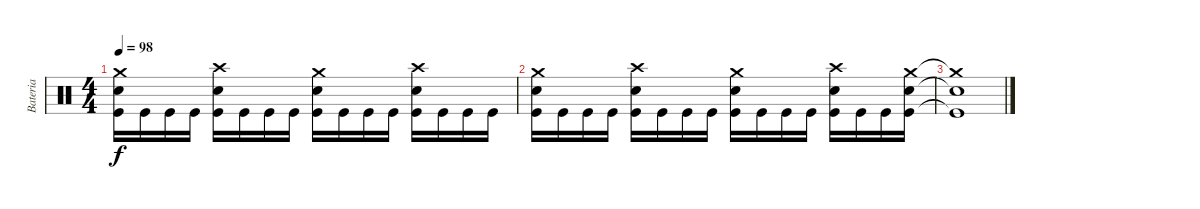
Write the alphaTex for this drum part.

\track ("Bateria" "Bateria") {instrument percussion}
\staff {score}
\articulation defaults
\ts (4 4)
\tempo 98
\clef neutral
\ks c
("Crash medium (hit)" "Electric Snare (hit)" "Kick (hit)").16{dy f} "Kick (hit)".16 "Kick (hit)".16 "Kick (hit)".16 ("Crash high (hit)" "Electric Snare (hit)" "Kick (hit)").16 "Kick (hit)".16 "Kick (hit)".16 "Kick (hit)".16 ("Crash medium (hit)" "Electric Snare (hit)" "Kick (hit)").16 "Kick (hit)".16 "Kick (hit)".16 "Kick (hit)".16 ("Crash high (hit)" "Electric Snare (hit)" "Kick (hit)").16 "Kick (hit)".16 "Kick (hit)".16 "Kick (hit)".16 |
("Crash medium (hit)" "Electric Snare (hit)" "Kick (hit)").16 "Kick (hit)".16 "Kick (hit)".16 "Kick (hit)".16 ("Crash high (hit)" "Electric Snare (hit)" "Kick (hit)").16 "Kick (hit)".16 "Kick (hit)".16 "Kick (hit)".16 ("Crash medium (hit)" "Electric Snare (hit)" "Kick (hit)").16 "Kick (hit)".16 "Kick (hit)".16 "Kick (hit)".16 ("Crash high (hit)" "Electric Snare (hit)" "Kick (hit)").16 "Kick (hit)".16 "Kick (hit)".16 ("Crash medium (hit)" "Electric Snare (hit)" "Kick (hit)").16 |
("Crash medium (hit)"{t} "Electric Snare (hit)"{t} "Kick (hit)"{t}).1
